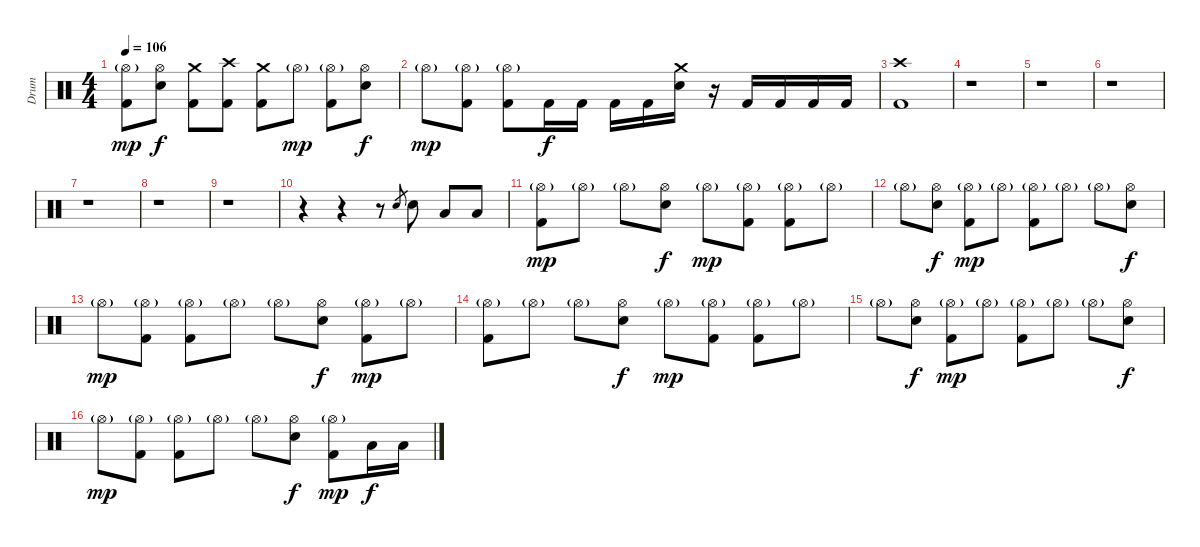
\track ("Drum" "Drum") {instrument percussion}
\staff {score}
\articulation defaults
\ts (4 4)
\tempo 106
\clef neutral
\ks c
("Hi-Hat (open)"{g} "Kick (hit) 2").8{dy mp} ("Hi-Hat (open)" "Electric Snare (hit)").8{dy f} ("Crash medium (hit)" "Kick (hit) 2").8 ("Crash high (hit)" "Kick (hit) 2").8 ("Crash medium (hit)" "Kick (hit) 2").8 "Hi-Hat (open)"{g}.8{dy mp} ("Hi-Hat (open)"{g} "Kick (hit) 2").8 ("Hi-Hat (open)" "Electric Snare (hit)").8{dy f} |
"Hi-Hat (open)"{g}.8{dy mp} ("Hi-Hat (open)"{g} "Kick (hit) 2").8 ("Hi-Hat (open)"{g} "Kick (hit) 2").8 "Kick (hit) 2".16{dy f} "Kick (hit) 2".16 "Kick (hit) 2".16 "Kick (hit) 2".16 ("Crash medium (hit)" "Electric Snare (hit)").16 r.16 "Kick (hit) 2".16 "Kick (hit) 2".16 "Kick (hit) 2".16 "Kick (hit) 2".16 |
("Crash high (hit)" "Kick (hit) 2").1 |
r.1 |
r.1 |
r.1 |
r.1 |
r.1 |
r.1 |
r.4 r.4 r.8 "Electric Snare (hit)".8{gr} "Electric Snare (hit)".8 "Low Tom (hit)".8 "Low Floor Tom (hit)".8 |
("Hi-Hat (open)"{g} "Kick (hit) 2").8{dy mp} "Hi-Hat (open)"{g}.8 "Hi-Hat (open)"{g}.8 ("Hi-Hat (open)" "Electric Snare (hit)").8{dy f} "Hi-Hat (open)"{g}.8{dy mp} ("Hi-Hat (open)"{g} "Kick (hit) 2").8 ("Hi-Hat (open)"{g} "Kick (hit) 2").8 "Hi-Hat (open)"{g}.8 |
"Hi-Hat (open)"{g}.8 ("Hi-Hat (open)" "Electric Snare (hit)").8{dy f} ("Hi-Hat (open)"{g} "Kick (hit) 2").8{dy mp} "Hi-Hat (open)"{g}.8 ("Hi-Hat (open)"{g} "Kick (hit) 2").8 "Hi-Hat (open)"{g}.8 "Hi-Hat (open)"{g}.8 ("Hi-Hat (open)" "Electric Snare (hit)").8{dy f} |
"Hi-Hat (open)"{g}.8{dy mp} ("Hi-Hat (open)"{g} "Kick (hit) 2").8 ("Hi-Hat (open)"{g} "Kick (hit) 2").8 "Hi-Hat (open)"{g}.8 "Hi-Hat (open)"{g}.8 ("Hi-Hat (open)" "Electric Snare (hit)").8{dy f} ("Hi-Hat (open)"{g} "Kick (hit) 2").8{dy mp} "Hi-Hat (open)"{g}.8 |
("Hi-Hat (open)"{g} "Kick (hit) 2").8 "Hi-Hat (open)"{g}.8 "Hi-Hat (open)"{g}.8 ("Hi-Hat (open)" "Electric Snare (hit)").8{dy f} "Hi-Hat (open)"{g}.8{dy mp} ("Hi-Hat (open)"{g} "Kick (hit) 2").8 ("Hi-Hat (open)"{g} "Kick (hit) 2").8 "Hi-Hat (open)"{g}.8 |
"Hi-Hat (open)"{g}.8 ("Hi-Hat (open)" "Electric Snare (hit)").8{dy f} ("Hi-Hat (open)"{g} "Kick (hit) 2").8{dy mp} "Hi-Hat (open)"{g}.8 ("Hi-Hat (open)"{g} "Kick (hit) 2").8 "Hi-Hat (open)"{g}.8 "Hi-Hat (open)"{g}.8 ("Hi-Hat (open)" "Electric Snare (hit)").8{dy f} |
"Hi-Hat (open)"{g}.8{dy mp} ("Hi-Hat (open)"{g} "Kick (hit) 2").8 ("Hi-Hat (open)"{g} "Kick (hit) 2").8 "Hi-Hat (open)"{g}.8 "Hi-Hat (open)"{g}.8 ("Hi-Hat (open)" "Electric Snare (hit)").8{dy f} ("Hi-Hat (open)"{g} "Kick (hit) 2").8{dy mp} "Low Tom (hit)".16{dy f} "Low Floor Tom (hit)".16
